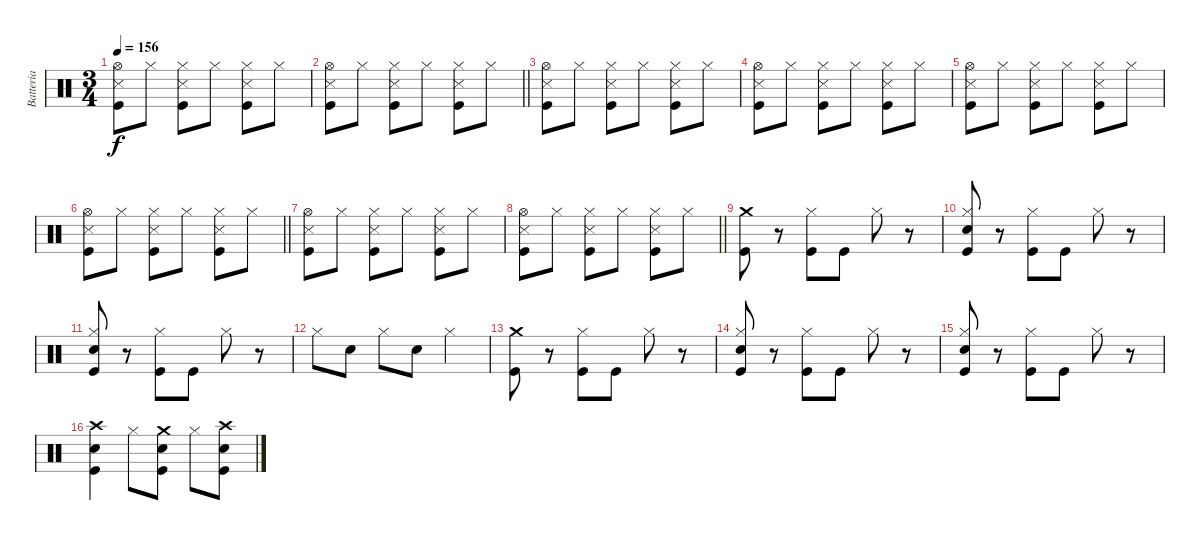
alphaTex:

\track ("Batteria" "Batteria") {instrument percussion}
\staff {score}
\articulation defaults
\ts (3 4)
\tempo 156
\clef neutral
\ks c
("Hi-Hat (open)" "Kick (hit)" "Snare (side stick) 3").8{dy f} "Hi-Hat (closed)".8 ("Hi-Hat (closed)" "Kick (hit)" "Snare (side stick) 3").8 "Hi-Hat (closed)".8 ("Hi-Hat (closed)" "Kick (hit)" "Snare (side stick) 3").8 "Hi-Hat (closed)".8 |
\barLineRight lightlight
("Hi-Hat (open)" "Kick (hit)" "Snare (side stick) 3").8 "Hi-Hat (closed)".8 ("Hi-Hat (closed)" "Kick (hit)" "Snare (side stick) 3").8 "Hi-Hat (closed)".8 ("Hi-Hat (closed)" "Kick (hit)" "Snare (side stick) 3").8 "Hi-Hat (closed)".8 |
("Hi-Hat (open)" "Kick (hit)" "Snare (side stick) 3").8 "Hi-Hat (closed)".8 ("Hi-Hat (closed)" "Kick (hit)" "Snare (side stick) 3").8 "Hi-Hat (closed)".8 ("Hi-Hat (closed)" "Kick (hit)" "Snare (side stick) 3").8 "Hi-Hat (closed)".8 |
("Hi-Hat (open)" "Kick (hit)" "Snare (side stick) 3").8 "Hi-Hat (closed)".8 ("Hi-Hat (closed)" "Kick (hit)" "Snare (side stick) 3").8 "Hi-Hat (closed)".8 ("Hi-Hat (closed)" "Kick (hit)" "Snare (side stick) 3").8 "Hi-Hat (closed)".8 |
("Hi-Hat (open)" "Kick (hit)" "Snare (side stick) 3").8 "Hi-Hat (closed)".8 ("Hi-Hat (closed)" "Kick (hit)" "Snare (side stick) 3").8 "Hi-Hat (closed)".8 ("Hi-Hat (closed)" "Kick (hit)" "Snare (side stick) 3").8 "Hi-Hat (closed)".8 |
\barLineRight lightlight
("Hi-Hat (open)" "Kick (hit)" "Snare (side stick) 3").8 "Hi-Hat (closed)".8 ("Hi-Hat (closed)" "Kick (hit)" "Snare (side stick) 3").8 "Hi-Hat (closed)".8 ("Hi-Hat (closed)" "Kick (hit)" "Snare (side stick) 3").8 "Hi-Hat (closed)".8 |
("Hi-Hat (open)" "Kick (hit)" "Snare (side stick) 3").8 "Hi-Hat (closed)".8 ("Hi-Hat (closed)" "Kick (hit)" "Snare (side stick) 3").8 "Hi-Hat (closed)".8 ("Hi-Hat (closed)" "Kick (hit)" "Snare (side stick) 3").8 "Hi-Hat (closed)".8 |
\barLineRight lightlight
("Hi-Hat (open)" "Kick (hit)" "Snare (side stick) 3").8 "Hi-Hat (closed)".8 ("Hi-Hat (closed)" "Kick (hit)" "Snare (side stick) 3").8 "Hi-Hat (closed)".8 ("Hi-Hat (closed)" "Kick (hit)" "Snare (side stick) 3").8 "Hi-Hat (closed)".8 |
\section ("" "")
("Crash medium (hit)" "Kick (hit)").8 r.8 ("Hi-Hat (closed)" "Kick (hit)").8 "Kick (hit)".8 "Hi-Hat (closed)".8 r.8 |
("Hi-Hat (closed)" "Electric Snare (hit)" "Kick (hit)").8 r.8 ("Hi-Hat (closed)" "Kick (hit)").8 "Kick (hit)".8 "Hi-Hat (closed)".8 r.8 |
("Hi-Hat (closed)" "Electric Snare (hit)" "Kick (hit)").8 r.8 ("Hi-Hat (closed)" "Kick (hit)").8 "Kick (hit)".8 "Hi-Hat (closed)".8 r.8 |
"Hi-Hat (closed)".8 "Electric Snare (hit)".8 "Hi-Hat (closed)".8 "Electric Snare (hit)".8 "Hi-Hat (closed)".4 |
("Crash medium (hit)" "Kick (hit)").8 r.8 ("Hi-Hat (closed)" "Kick (hit)").8 "Kick (hit)".8 "Hi-Hat (closed)".8 r.8 |
("Hi-Hat (closed)" "Electric Snare (hit)" "Kick (hit)").8 r.8 ("Hi-Hat (closed)" "Kick (hit)").8 "Kick (hit)".8 "Hi-Hat (closed)".8 r.8 |
("Hi-Hat (closed)" "Electric Snare (hit)" "Kick (hit)").8 r.8 ("Hi-Hat (closed)" "Kick (hit)").8 "Kick (hit)".8 "Hi-Hat (closed)".8 r.8 |
("Crash high (hit)" "Electric Snare (hit)" "Kick (hit)").4 "Hi-Hat (closed)".8 ("Crash medium (hit)" "Electric Snare (hit)" "Kick (hit)").8 "Hi-Hat (closed)".8 ("Crash high (hit)" "Electric Snare (hit)" "Kick (hit)").8
